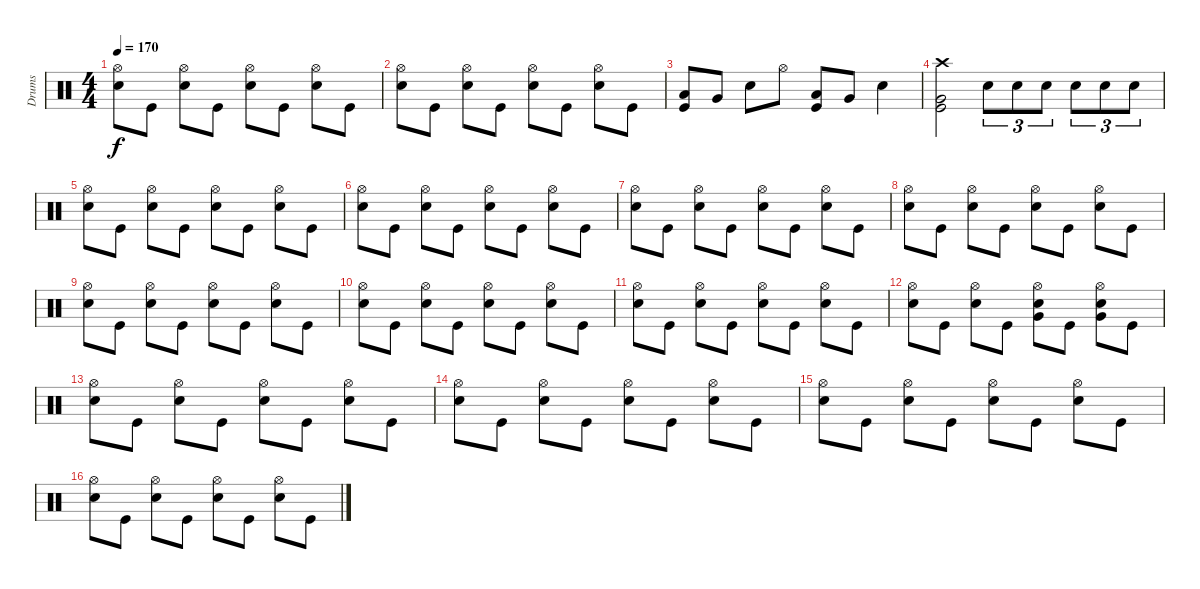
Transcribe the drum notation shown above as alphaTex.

\track ("Drums" "Drums") {instrument percussion}
\staff {score}
\articulation defaults
\ts (4 4)
\tempo 170
\clef neutral
\ks c
("Hi-Hat (open)" "Snare (hit) 2").8{dy f} "Kick (hit)".8 ("Hi-Hat (open)" "Snare (hit) 2").8 "Kick (hit)".8 ("Hi-Hat (open)" "Snare (hit) 2").8 "Kick (hit)".8 ("Hi-Hat (open)" "Snare (hit) 2").8 "Kick (hit)".8 |
("Hi-Hat (open)" "Snare (hit) 2").8 "Kick (hit)".8 ("Hi-Hat (open)" "Snare (hit) 2").8 "Kick (hit)".8 ("Hi-Hat (open)" "Snare (hit) 2").8 "Kick (hit)".8 ("Hi-Hat (open)" "Snare (hit) 2").8 "Kick (hit)".8 |
("Low Tom (hit)" "Kick (hit)").8 "Very Low Tom (hit)".8 "Snare (hit) 2".8 "Hi-Hat (open)".8 ("Low Tom (hit)" "Kick (hit)").8 "Very Low Tom (hit)".8 "Snare (hit) 2".4 |
("Crash high (hit)" "Very Low Tom (hit)" "Kick (hit)").2 "Snare (hit) 2".8{tu (3 2)} "Snare (hit) 2".8{tu (3 2)} "Snare (hit) 2".8{tu (3 2)} "Snare (hit) 2".8{tu (3 2)} "Snare (hit) 2".8{tu (3 2)} "Snare (hit) 2".8{tu (3 2)} |
("Hi-Hat (open)" "Snare (hit) 2").8{volume 13} "Kick (hit)".8 ("Hi-Hat (open)" "Snare (hit) 2").8 "Kick (hit)".8 ("Hi-Hat (open)" "Snare (hit) 2").8 "Kick (hit)".8 ("Hi-Hat (open)" "Snare (hit) 2").8 "Kick (hit)".8 |
("Hi-Hat (open)" "Snare (hit) 2").8 "Kick (hit)".8 ("Hi-Hat (open)" "Snare (hit) 2").8 "Kick (hit)".8 ("Hi-Hat (open)" "Snare (hit) 2").8 "Kick (hit)".8 ("Hi-Hat (open)" "Snare (hit) 2").8 "Kick (hit)".8 |
("Hi-Hat (open)" "Snare (hit) 2").8 "Kick (hit)".8 ("Hi-Hat (open)" "Snare (hit) 2").8 "Kick (hit)".8 ("Hi-Hat (open)" "Snare (hit) 2").8 "Kick (hit)".8 ("Hi-Hat (open)" "Snare (hit) 2").8 "Kick (hit)".8 |
("Hi-Hat (open)" "Snare (hit) 2").8 "Kick (hit)".8 ("Hi-Hat (open)" "Snare (hit) 2").8 "Kick (hit)".8 ("Hi-Hat (open)" "Snare (hit) 2").8 "Kick (hit)".8 ("Hi-Hat (open)" "Snare (hit) 2").8 "Kick (hit)".8 |
("Hi-Hat (open)" "Snare (hit) 2").8 "Kick (hit)".8 ("Hi-Hat (open)" "Snare (hit) 2").8 "Kick (hit)".8 ("Hi-Hat (open)" "Snare (hit) 2").8 "Kick (hit)".8 ("Hi-Hat (open)" "Snare (hit) 2").8 "Kick (hit)".8 |
("Hi-Hat (open)" "Snare (hit) 2").8 "Kick (hit)".8 ("Hi-Hat (open)" "Snare (hit) 2").8 "Kick (hit)".8 ("Hi-Hat (open)" "Snare (hit) 2").8 "Kick (hit)".8 ("Hi-Hat (open)" "Snare (hit) 2").8 "Kick (hit)".8 |
("Hi-Hat (open)" "Snare (hit) 2").8 "Kick (hit)".8 ("Hi-Hat (open)" "Snare (hit) 2").8 "Kick (hit)".8 ("Hi-Hat (open)" "Snare (hit) 2").8 "Kick (hit)".8 ("Hi-Hat (open)" "Snare (hit) 2").8 "Kick (hit)".8 |
("Hi-Hat (open)" "Snare (hit) 2").8 "Kick (hit)".8 ("Hi-Hat (open)" "Snare (hit) 2").8 "Kick (hit)".8 ("Hi-Hat (open)" "Snare (hit) 2" "Very Low Tom (hit)").8 "Kick (hit)".8 ("Hi-Hat (open)" "Snare (hit) 2" "Very Low Tom (hit)").8 "Kick (hit)".8 |
("Hi-Hat (open)" "Snare (hit) 2").8{volume 13} "Kick (hit)".8 ("Hi-Hat (open)" "Snare (hit) 2").8 "Kick (hit)".8 ("Hi-Hat (open)" "Snare (hit) 2").8 "Kick (hit)".8 ("Hi-Hat (open)" "Snare (hit) 2").8 "Kick (hit)".8 |
("Hi-Hat (open)" "Snare (hit) 2").8 "Kick (hit)".8 ("Hi-Hat (open)" "Snare (hit) 2").8 "Kick (hit)".8 ("Hi-Hat (open)" "Snare (hit) 2").8 "Kick (hit)".8 ("Hi-Hat (open)" "Snare (hit) 2").8 "Kick (hit)".8 |
("Hi-Hat (open)" "Snare (hit) 2").8 "Kick (hit)".8 ("Hi-Hat (open)" "Snare (hit) 2").8 "Kick (hit)".8 ("Hi-Hat (open)" "Snare (hit) 2").8 "Kick (hit)".8 ("Hi-Hat (open)" "Snare (hit) 2").8 "Kick (hit)".8 |
("Hi-Hat (open)" "Snare (hit) 2").8 "Kick (hit)".8 ("Hi-Hat (open)" "Snare (hit) 2").8 "Kick (hit)".8 ("Hi-Hat (open)" "Snare (hit) 2").8 "Kick (hit)".8 ("Hi-Hat (open)" "Snare (hit) 2").8 "Kick (hit)".8
